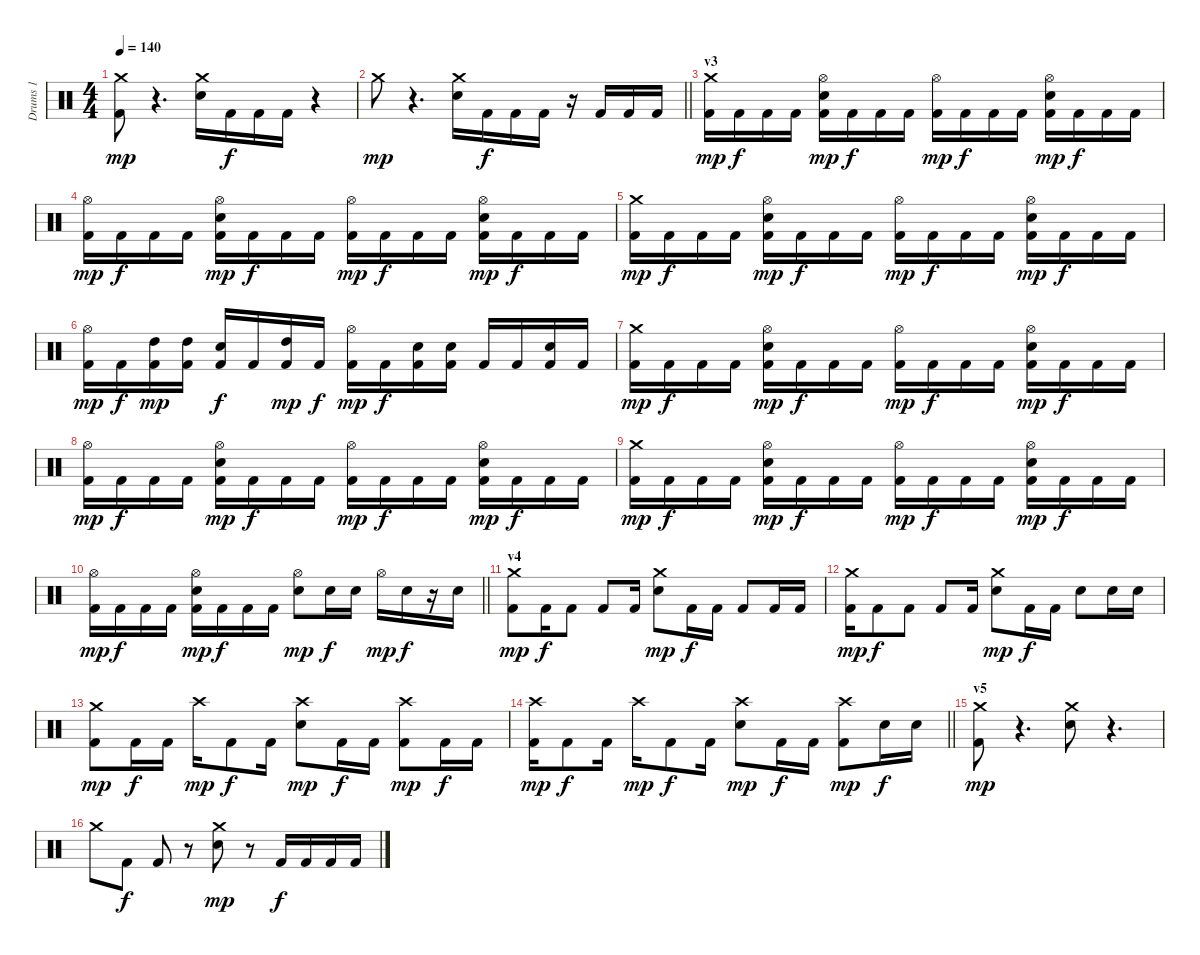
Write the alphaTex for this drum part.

\track ("Drums 1" "Drums 1") {instrument percussion}
\staff {score}
\articulation defaults
\ts (4 4)
\tempo 140
\clef neutral
\ks c
("Kick (hit) 2" "Crash medium (hit)").8{dy mp} r.4{d} ("Snare (hit) 2" "Crash medium (hit)").16 "Kick (hit) 2".16{dy f} "Kick (hit) 2".16 "Kick (hit) 2".16 r.4 |
\barLineRight lightlight "Crash medium (hit)".8{dy mp}
r.4{d} ("Snare (hit) 2" "Crash medium (hit)").16 "Kick (hit) 2".16{dy f} "Kick (hit) 2".16 "Kick (hit) 2".16 r.16 "Kick (hit) 2".16 "Kick (hit) 2".16 "Kick (hit) 2".16 |
\section ("" "v3")
("Kick (hit) 2" "Crash medium (hit)").16{dy mp} "Kick (hit) 2".16{dy f} "Kick (hit) 2".16 "Kick (hit) 2".16 ("Snare (hit) 2" "Kick (hit) 2" "Hi-Hat (open)").16{dy mp} "Kick (hit) 2".16{dy f} "Kick (hit) 2".16 "Kick (hit) 2".16 ("Hi-Hat (open)" "Kick (hit) 2").16{dy mp} "Kick (hit) 2".16{dy f} "Kick (hit) 2".16 "Kick (hit) 2".16 ("Snare (hit) 2" "Kick (hit) 2" "Hi-Hat (open)").16{dy mp} "Kick (hit) 2".16{dy f} "Kick (hit) 2".16 "Kick (hit) 2".16 |
("Hi-Hat (open)" "Kick (hit) 2").16{dy mp} "Kick (hit) 2".16{dy f} "Kick (hit) 2".16 "Kick (hit) 2".16 ("Kick (hit) 2" "Snare (hit) 2" "Hi-Hat (open)").16{dy mp} "Kick (hit) 2".16{dy f} "Kick (hit) 2".16 "Kick (hit) 2".16 ("Hi-Hat (open)" "Kick (hit) 2").16{dy mp} "Kick (hit) 2".16{dy f} "Kick (hit) 2".16 "Kick (hit) 2".16 ("Snare (hit) 2" "Kick (hit) 2" "Hi-Hat (open)").16{dy mp} "Kick (hit) 2".16{dy f} "Kick (hit) 2".16 "Kick (hit) 2".16 |
("Kick (hit) 2" "Crash medium (hit)").16{dy mp} "Kick (hit) 2".16{dy f} "Kick (hit) 2".16 "Kick (hit) 2".16 ("Kick (hit) 2" "Snare (hit) 2" "Hi-Hat (open)").16{dy mp} "Kick (hit) 2".16{dy f} "Kick (hit) 2".16 "Kick (hit) 2".16 ("Kick (hit) 2" "Hi-Hat (open)").16{dy mp} "Kick (hit) 2".16{dy f} "Kick (hit) 2".16 "Kick (hit) 2".16 ("Snare (hit) 2" "Kick (hit) 2" "Hi-Hat (open)").16{dy mp} "Kick (hit) 2".16{dy f} "Kick (hit) 2".16 "Kick (hit) 2".16 |
("Kick (hit) 2" "Hi-Hat (open)").16{dy mp} "Kick (hit) 2".16{dy f} ("Kick (hit) 2" "High Tom (hit)").16{dy mp} ("Kick (hit) 2" "High Tom (hit)").16 ("Kick (hit) 2" "Snare (hit) 2").16{dy f} "Kick (hit) 2".16 ("Kick (hit) 2" "High Tom (hit)").16{dy mp} "Kick (hit) 2".16{dy f} ("Kick (hit) 2" "Hi-Hat (open)").16{dy mp} "Kick (hit) 2".16{dy f} ("Kick (hit) 2" "Snare (hit) 2").16 ("Snare (hit) 2" "Kick (hit) 2").16 "Kick (hit) 2".16 "Kick (hit) 2".16 ("Snare (hit) 2" "Kick (hit) 2").16 "Kick (hit) 2".16 |
("Crash medium (hit)" "Kick (hit) 2").16{dy mp} "Kick (hit) 2".16{dy f} "Kick (hit) 2".16 "Kick (hit) 2".16 ("Kick (hit) 2" "Snare (hit) 2" "Hi-Hat (open)").16{dy mp} "Kick (hit) 2".16{dy f} "Kick (hit) 2".16 "Kick (hit) 2".16 ("Hi-Hat (open)" "Kick (hit) 2").16{dy mp} "Kick (hit) 2".16{dy f} "Kick (hit) 2".16 "Kick (hit) 2".16 ("Hi-Hat (open)" "Snare (hit) 2" "Kick (hit) 2").16{dy mp} "Kick (hit) 2".16{dy f} "Kick (hit) 2".16 "Kick (hit) 2".16 |
("Kick (hit) 2" "Hi-Hat (open)").16{dy mp} "Kick (hit) 2".16{dy f} "Kick (hit) 2".16 "Kick (hit) 2".16 ("Snare (hit) 2" "Kick (hit) 2" "Hi-Hat (open)").16{dy mp} "Kick (hit) 2".16{dy f} "Kick (hit) 2".16 "Kick (hit) 2".16 ("Hi-Hat (open)" "Kick (hit) 2").16{dy mp} "Kick (hit) 2".16{dy f} "Kick (hit) 2".16 "Kick (hit) 2".16 ("Hi-Hat (open)" "Kick (hit) 2" "Snare (hit) 2").16{dy mp} "Kick (hit) 2".16{dy f} "Kick (hit) 2".16 "Kick (hit) 2".16 |
("Crash medium (hit)" "Kick (hit) 2").16{dy mp} "Kick (hit) 2".16{dy f} "Kick (hit) 2".16 "Kick (hit) 2".16 ("Kick (hit) 2" "Snare (hit) 2" "Hi-Hat (open)").16{dy mp} "Kick (hit) 2".16{dy f} "Kick (hit) 2".16 "Kick (hit) 2".16 ("Kick (hit) 2" "Hi-Hat (open)").16{dy mp} "Kick (hit) 2".16{dy f} "Kick (hit) 2".16 "Kick (hit) 2".16 ("Kick (hit) 2" "Snare (hit) 2" "Hi-Hat (open)").16{dy mp} "Kick (hit) 2".16{dy f} "Kick (hit) 2".16 "Kick (hit) 2".16 |
\barLineRight lightlight
("Kick (hit) 2" "Hi-Hat (open)").16{dy mp} "Kick (hit) 2".16{dy f} "Kick (hit) 2".16 "Kick (hit) 2".16 ("Kick (hit) 2" "Snare (hit) 2" "Hi-Hat (open)").16{dy mp} "Kick (hit) 2".16{dy f} "Kick (hit) 2".16 "Kick (hit) 2".16 ("Snare (hit) 2" "Hi-Hat (open)").8{dy mp} "Snare (hit) 2".16{dy f} "Snare (hit) 2".16 "Hi-Hat (open)".16{dy mp} "Snare (hit) 2".16{dy f} r.16 "Snare (hit) 2".16 |
\section ("" "v4")
("Kick (hit) 2" "Crash medium (hit)").8{dy mp} "Kick (hit) 2".16{dy f} "Kick (hit) 2".8 "Kick (hit) 2".8 "Kick (hit) 2".16 ("Crash medium (hit)" "Snare (hit) 2").8{dy mp} "Kick (hit) 2".16{dy f} "Kick (hit) 2".16 "Kick (hit) 2".8 "Kick (hit) 2".16 "Kick (hit) 2".16 |
("Kick (hit) 2" "Crash medium (hit)").16{dy mp} "Kick (hit) 2".8{dy f} "Kick (hit) 2".8 "Kick (hit) 2".8 "Kick (hit) 2".16 ("Crash medium (hit)" "Snare (hit) 2").8{dy mp} "Kick (hit) 2".16{dy f} "Kick (hit) 2".16 "Snare (hit) 2".8 "Snare (hit) 2".16 "Snare (hit) 2".16 |
("Crash medium (hit)" "Kick (hit) 2").8{dy mp} "Kick (hit) 2".16{dy f} "Kick (hit) 2".16 "Crash high (hit)".16{dy mp} "Kick (hit) 2".8{dy f} "Kick (hit) 2".16 ("Crash high (hit)" "Snare (hit) 2").8{dy mp} "Kick (hit) 2".16{dy f} "Kick (hit) 2".16 ("Crash high (hit)" "Kick (hit) 2").8{dy mp} "Kick (hit) 2".16{dy f} "Kick (hit) 2".16 |
\barLineRight lightlight
("Kick (hit) 2" "Crash high (hit)").16{dy mp} "Kick (hit) 2".8{dy f} "Kick (hit) 2".16 "Crash high (hit)".16{dy mp} "Kick (hit) 2".8{dy f} "Kick (hit) 2".16 ("Crash high (hit)" "Snare (hit) 2").8{dy mp} "Kick (hit) 2".16{dy f} "Kick (hit) 2".16 ("Crash high (hit)" "Kick (hit) 2").8{dy mp} "Snare (hit) 2".16{dy f} "Snare (hit) 2".16 |
\section ("" "v5")
("Crash medium (hit)" "Kick (hit) 2").8{dy mp} r.4{d} ("Snare (hit) 2" "Crash medium (hit)").8 r.4{d} |
"Crash medium (hit)".8 "Kick (hit) 2".8{dy f} "Kick (hit) 2".8 r.8 ("Snare (hit) 2" "Crash medium (hit)").8{dy mp} r.8 "Kick (hit) 2".16{dy f} "Kick (hit) 2".16 "Kick (hit) 2".16 "Kick (hit) 2".16
